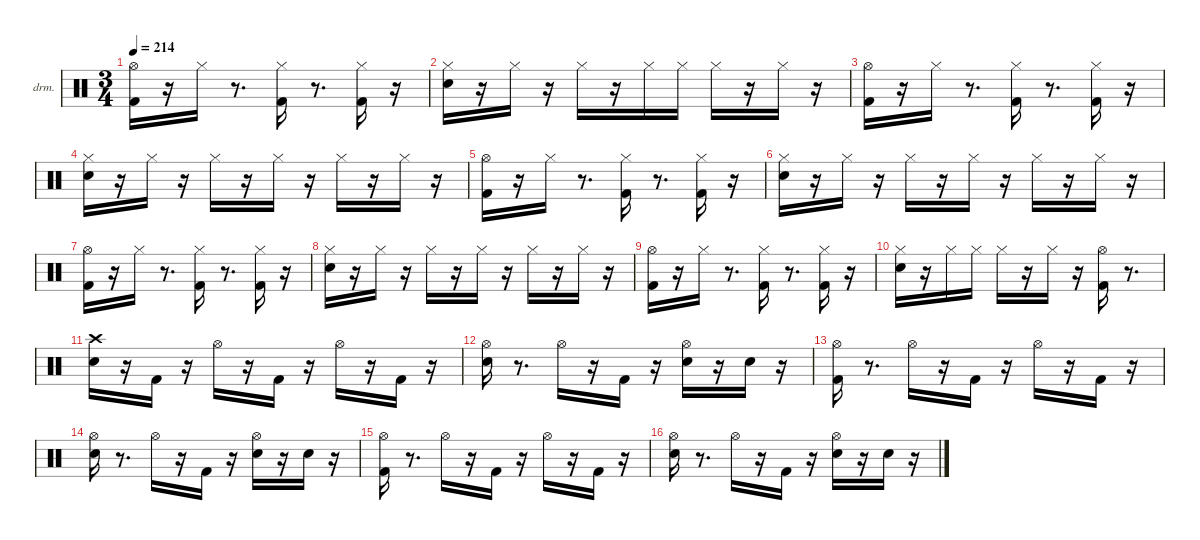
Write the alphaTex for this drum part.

\hideDynamics
\bracketExtendMode nobrackets
\firstSystemTrackNameOrientation horizontal
\otherSystemsTrackNameOrientation horizontal
\track ("EZdrummer 3" "drm.") {instrument percussion}
\staff {score}
\articulation defaults
\ts (3 4)
\tempo 214
\clef neutral
\ks aminor
("Kick (hit) 2" "Hi-Hat (open)"{acc #}).16{dy ff beam Down} r.16{beam Down} "Hi-Hat (closed)"{acc #}.16{beam Down} r.8{d beam Down} ("Kick (hit) 2" "Hi-Hat (closed)"{acc #}).16{dy p beam Down} r.8{d beam Down} ("Kick (hit) 2" "Hi-Hat (closed)"{acc #}).16{dy mf beam Down} r.16{beam Down} |
("Snare (hit) 2" "Hi-Hat (closed)"{acc #}).16{dy ff beam Down} r.16{beam Down} "Hi-Hat (closed)"{acc #}.16{dy ppp beam Down} r.16{beam Down} "Hi-Hat (closed)"{acc #}.16{dy ff beam Down} r.16{beam Down} "Hi-Hat (closed)"{acc #}.16{dy mf beam Down} "Hi-Hat (closed)"{acc #}.16{dy mp beam Down} "Hi-Hat (closed)"{acc #}.16{dy ff beam Down} r.16{beam Down} "Hi-Hat (closed)"{acc #}.16{dy ppp beam Down} r.16{beam Down} |
("Kick (hit) 2" "Hi-Hat (open)"{acc #}).16{dy ff beam Down} r.16{beam Down} "Hi-Hat (closed)"{acc #}.16{beam Down} r.8{d beam Down} ("Kick (hit) 2" "Hi-Hat (closed)"{acc #}).16{dy mp beam Down} r.8{d beam Down} ("Kick (hit) 2" "Hi-Hat (closed)"{acc #}).16{dy mf beam Down} r.16{beam Down} |
("Snare (hit) 2" "Hi-Hat (closed)"{acc #}).16{dy ff beam Down} r.16{beam Down} "Hi-Hat (closed)"{acc #}.16{dy ppp beam Down} r.16{beam Down} "Hi-Hat (closed)"{acc #}.16{dy mp beam Down} r.16{beam Down} "Hi-Hat (closed)"{acc #}.16{dy ppp beam Down} r.16{beam Down} "Hi-Hat (closed)"{acc #}.16{dy mp beam Down} r.16{beam Down} "Hi-Hat (closed)"{acc #}.16{dy ppp beam Down} r.16{beam Down} |
("Kick (hit) 2" "Hi-Hat (open)"{acc #}).16{dy ff beam Down} r.16{beam Down} "Hi-Hat (closed)"{acc #}.16{beam Down} r.8{d beam Down} ("Kick (hit) 2" "Hi-Hat (closed)"{acc #}).16{dy mp beam Down} r.8{d beam Down} ("Kick (hit) 2" "Hi-Hat (closed)"{acc #}).16{dy mf beam Down} r.16{beam Down} |
("Snare (hit) 2" "Hi-Hat (closed)"{acc #}).16{dy ff beam Down} r.16{beam Down} "Hi-Hat (closed)"{acc #}.16{dy ppp beam Down} r.16{beam Down} "Hi-Hat (closed)"{acc #}.16{dy mp beam Down} r.16{beam Down} "Hi-Hat (closed)"{acc #}.16{dy ppp beam Down} r.16{beam Down} "Hi-Hat (closed)"{acc #}.16{dy mp beam Down} r.16{beam Down} "Hi-Hat (closed)"{acc #}.16{dy ppp beam Down} r.16{beam Down} |
("Kick (hit) 2" "Hi-Hat (open)"{acc #}).16{dy ff beam Down} r.16{beam Down} "Hi-Hat (closed)"{acc #}.16{beam Down} r.8{d beam Down} ("Kick (hit) 2" "Hi-Hat (closed)"{acc #}).16{dy mp beam Down} r.8{d beam Down} ("Kick (hit) 2" "Hi-Hat (closed)"{acc #}).16{dy mf beam Down} r.16{beam Down} |
("Snare (hit) 2" "Hi-Hat (closed)"{acc #}).16{dy ff beam Down} r.16{beam Down} "Hi-Hat (closed)"{acc #}.16{dy ppp beam Down} r.16{beam Down} "Hi-Hat (closed)"{acc #}.16{dy mp beam Down} r.16{beam Down} "Hi-Hat (closed)"{acc #}.16{dy ppp beam Down} r.16{beam Down} "Hi-Hat (closed)"{acc #}.16{dy mp beam Down} r.16{beam Down} "Hi-Hat (closed)"{acc #}.16{dy ppp beam Down} r.16{beam Down} |
("Kick (hit) 2" "Hi-Hat (open)"{acc #}).16{dy ff beam Down} r.16{beam Down} "Hi-Hat (closed)"{acc #}.16{beam Down} r.8{d beam Down} ("Kick (hit) 2" "Hi-Hat (closed)"{acc #}).16{dy mp beam Down} r.8{d beam Down} ("Kick (hit) 2" "Hi-Hat (closed)"{acc #}).16{dy mf beam Down} r.16{beam Down} |
("Snare (hit) 2" "Hi-Hat (closed)"{acc #}).16{dy ff beam Down} r.16{beam Down} "Hi-Hat (closed)"{acc #}.16{dy f beam Down} "Hi-Hat (closed)"{acc #}.16{dy mp beam Down} "Hi-Hat (closed)"{acc #}.16{dy ff beam Down} r.16{beam Down} "Hi-Hat (closed)"{acc #}.16{dy p beam Down} r.16{beam Down} ("Kick (hit) 2" "Hi-Hat (open)"{acc #}).16{dy ff beam Down} r.8{d beam Down} |
("Snare (hit) 2" "Crash high (hit)"{acc #}).16{dy f beam Down} r.16{beam Down} "Kick (hit) 2".16{beam Up} r.16{beam Up} "Hi-Hat (open)"{acc #}.16{dy mf beam Down} r.16{beam Down} "Kick (hit) 2".16{dy p beam Up} r.16{beam Up} "Hi-Hat (open)"{acc #}.16{dy mp beam Down} r.16{beam Down} "Kick (hit) 2".16{dy mf beam Up} r.16{beam Up} |
("Snare (hit) 2" "Hi-Hat (open)"{acc #}).16{beam Down} r.8{d beam Down} "Hi-Hat (open)"{acc #}.16{beam Down} r.16{beam Down} "Kick (hit) 2".16{dy f beam Up} r.16{beam Up} ("Snare (hit) 2" "Hi-Hat (open)"{acc #}).16{dy mp beam Down} r.16{beam Down} "Snare (hit) 2".16{dy pp beam Down} r.16{beam Down} |
("Kick (hit) 2" "Hi-Hat (open)"{acc #}).16{dy ff beam Down} r.8{d beam Down} "Hi-Hat (open)"{acc #}.16{dy mf beam Down} r.16{beam Down} "Kick (hit) 2".16{dy p beam Up} r.16{beam Up} "Hi-Hat (open)"{acc #}.16{dy mp beam Down} r.16{beam Down} "Kick (hit) 2".16{dy mf beam Up} r.16{beam Up} |
("Snare (hit) 2" "Hi-Hat (open)"{acc #}).16{beam Down} r.8{d beam Down} "Hi-Hat (open)"{acc #}.16{dy mp beam Down} r.16{beam Down} "Kick (hit) 2".16{dy f beam Up} r.16{beam Up} ("Snare (hit) 2" "Hi-Hat (open)"{acc #}).16{dy mp beam Down} r.16{beam Down} "Snare (hit) 2".16{dy pp beam Down} r.16{beam Down} |
("Kick (hit) 2" "Hi-Hat (open)"{acc #}).16{dy fff beam Down} r.8{d beam Down} "Hi-Hat (open)"{acc #}.16{dy mf beam Down} r.16{beam Down} "Kick (hit) 2".16{dy p beam Up} r.16{beam Up} "Hi-Hat (open)"{acc #}.16{dy mp beam Down} r.16{beam Down} "Kick (hit) 2".16{dy mf beam Up} r.16{beam Up} |
("Snare (hit) 2" "Hi-Hat (open)"{acc #}).16{beam Down} r.8{d beam Down} "Hi-Hat (open)"{acc #}.16{beam Down} r.16{beam Down} "Kick (hit) 2".16{dy f beam Up} r.16{beam Up} ("Snare (hit) 2" "Hi-Hat (open)"{acc #}).16{dy mp beam Down} r.16{beam Down} "Snare (hit) 2".16{dy pp beam Down} r.16{beam Down}
